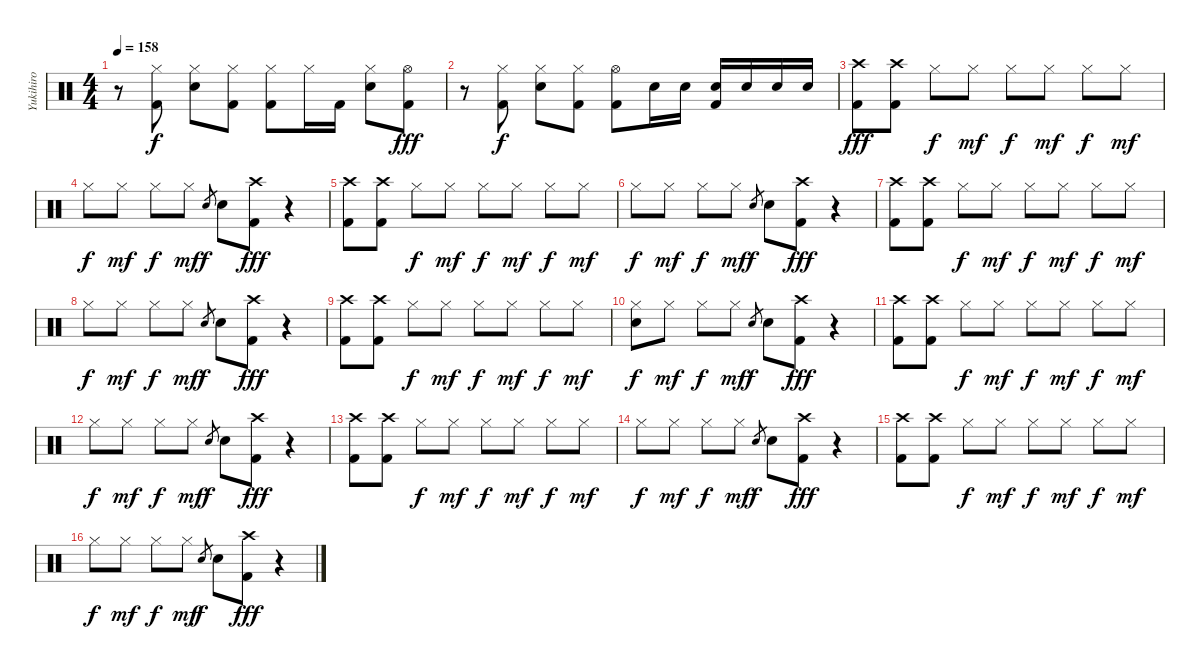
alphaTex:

\track ("Yukihiro" "Yukihiro") {instrument percussion}
\staff {score}
\articulation defaults
\ts (4 4)
\tempo 158
\clef neutral
\ks c
r.8{dy fff} ("Hi-Hat (closed)" "Kick (hit) 2").8{dy f} ("Hi-Hat (closed)" "Snare (hit) 2").8 ("Hi-Hat (closed)" "Kick (hit) 2").8 ("Hi-Hat (closed)" "Kick (hit) 2").8 "Hi-Hat (closed)".16 "Kick (hit) 2".16 ("Hi-Hat (closed)" "Snare (hit) 2").8 ("Hi-Hat (open)" "Kick (hit) 2").8{dy fff} |
r.8 ("Hi-Hat (closed)" "Kick (hit) 2").8{dy f} ("Hi-Hat (closed)" "Snare (hit) 2").8 ("Hi-Hat (closed)" "Kick (hit) 2").8 ("Hi-Hat (open)" "Kick (hit) 2").8 "Snare (hit) 2".16 "Snare (hit) 2".16 ("Snare (hit) 2" "Kick (hit) 2").16 "Snare (hit) 2".16 "Snare (hit) 2".16 "Snare (hit) 2".16 |
("Crash high (hit)" "Kick (hit) 2").8{dy fff} ("Crash high (hit)" "Kick (hit) 2").8 "Hi-Hat (closed)".8{dy f} "Hi-Hat (closed)".8{dy mf} "Hi-Hat (closed)".8{dy f} "Hi-Hat (closed)".8{dy mf} "Hi-Hat (closed)".8{dy f} "Hi-Hat (closed)".8{dy mf} |
"Hi-Hat (closed)".8{dy f} "Hi-Hat (closed)".8{dy mf} "Hi-Hat (closed)".8{dy f} "Hi-Hat (closed)".8{dy mf} "Snare (hit) 2".8{gr dy f} "Snare (hit) 2".8 ("Crash high (hit)" "Kick (hit) 2").8{dy fff} r.4 |
("Crash high (hit)" "Kick (hit) 2").8 ("Crash high (hit)" "Kick (hit) 2").8 "Hi-Hat (closed)".8{dy f} "Hi-Hat (closed)".8{dy mf} "Hi-Hat (closed)".8{dy f} "Hi-Hat (closed)".8{dy mf} "Hi-Hat (closed)".8{dy f} "Hi-Hat (closed)".8{dy mf} |
"Hi-Hat (closed)".8{dy f} "Hi-Hat (closed)".8{dy mf} "Hi-Hat (closed)".8{dy f} "Hi-Hat (closed)".8{dy mf} "Snare (hit) 2".8{gr dy f} "Snare (hit) 2".8 ("Crash high (hit)" "Kick (hit) 2").8{dy fff} r.4 |
("Crash high (hit)" "Kick (hit) 2").8 ("Crash high (hit)" "Kick (hit) 2").8 "Hi-Hat (closed)".8{dy f} "Hi-Hat (closed)".8{dy mf} "Hi-Hat (closed)".8{dy f} "Hi-Hat (closed)".8{dy mf} "Hi-Hat (closed)".8{dy f} "Hi-Hat (closed)".8{dy mf} |
"Hi-Hat (closed)".8{dy f} "Hi-Hat (closed)".8{dy mf} "Hi-Hat (closed)".8{dy f} "Hi-Hat (closed)".8{dy mf} "Snare (hit) 2".8{gr dy f} "Snare (hit) 2".8 ("Crash high (hit)" "Kick (hit) 2").8{dy fff} r.4 |
("Crash high (hit)" "Kick (hit) 2").8 ("Crash high (hit)" "Kick (hit) 2").8 "Hi-Hat (closed)".8{dy f} "Hi-Hat (closed)".8{dy mf} "Hi-Hat (closed)".8{dy f} "Hi-Hat (closed)".8{dy mf} "Hi-Hat (closed)".8{dy f} "Hi-Hat (closed)".8{dy mf} |
("Hi-Hat (closed)" "Snare (hit) 2").8{dy f} "Hi-Hat (closed)".8{dy mf} "Hi-Hat (closed)".8{dy f} "Hi-Hat (closed)".8{dy mf} "Snare (hit) 2".8{gr dy f} "Snare (hit) 2".8 ("Crash high (hit)" "Kick (hit) 2").8{dy fff} r.4 |
("Crash high (hit)" "Kick (hit) 2").8 ("Crash high (hit)" "Kick (hit) 2").8 "Hi-Hat (closed)".8{dy f} "Hi-Hat (closed)".8{dy mf} "Hi-Hat (closed)".8{dy f} "Hi-Hat (closed)".8{dy mf} "Hi-Hat (closed)".8{dy f} "Hi-Hat (closed)".8{dy mf} |
"Hi-Hat (closed)".8{dy f} "Hi-Hat (closed)".8{dy mf} "Hi-Hat (closed)".8{dy f} "Hi-Hat (closed)".8{dy mf} "Snare (hit) 2".8{gr dy f} "Snare (hit) 2".8 ("Crash high (hit)" "Kick (hit) 2").8{dy fff} r.4 |
("Crash high (hit)" "Kick (hit) 2").8 ("Crash high (hit)" "Kick (hit) 2").8 "Hi-Hat (closed)".8{dy f} "Hi-Hat (closed)".8{dy mf} "Hi-Hat (closed)".8{dy f} "Hi-Hat (closed)".8{dy mf} "Hi-Hat (closed)".8{dy f} "Hi-Hat (closed)".8{dy mf} |
"Hi-Hat (closed)".8{dy f} "Hi-Hat (closed)".8{dy mf} "Hi-Hat (closed)".8{dy f} "Hi-Hat (closed)".8{dy mf} "Snare (hit) 2".8{gr dy f} "Snare (hit) 2".8 ("Crash high (hit)" "Kick (hit) 2").8{dy fff} r.4 |
("Crash high (hit)" "Kick (hit) 2").8 ("Crash high (hit)" "Kick (hit) 2").8 "Hi-Hat (closed)".8{dy f} "Hi-Hat (closed)".8{dy mf} "Hi-Hat (closed)".8{dy f} "Hi-Hat (closed)".8{dy mf} "Hi-Hat (closed)".8{dy f} "Hi-Hat (closed)".8{dy mf} |
"Hi-Hat (closed)".8{dy f} "Hi-Hat (closed)".8{dy mf} "Hi-Hat (closed)".8{dy f} "Hi-Hat (closed)".8{dy mf} "Snare (hit) 2".8{gr dy f} "Snare (hit) 2".8 ("Crash high (hit)" "Kick (hit) 2").8{dy fff} r.4
